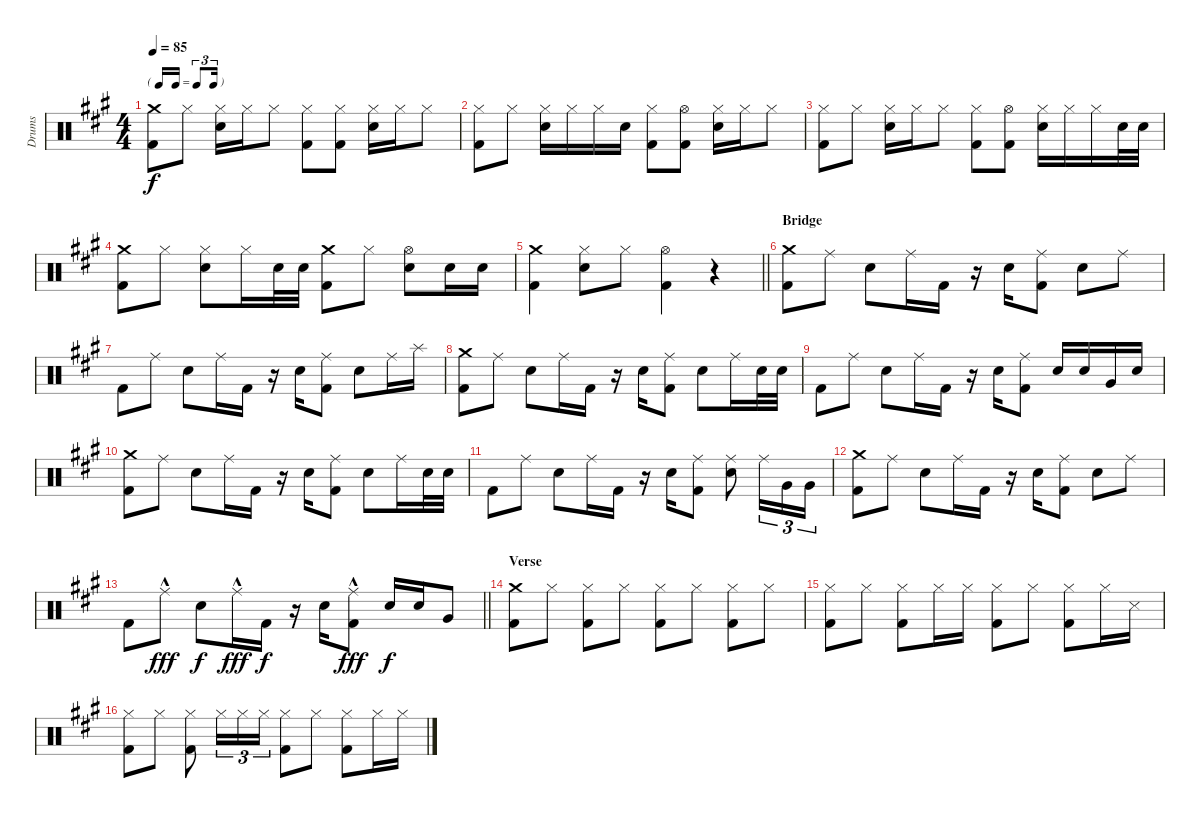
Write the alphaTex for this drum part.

\track ("Drums" "Drums") {instrument percussion}
\staff {score}
\articulation defaults
\ts (4 4)
\tf triplet16th
\tempo 85
\clef neutral
\ks a
("Crash medium (hit)" "Kick (hit) 2").8{dy f} "Hi-Hat (closed)".8 ("Hi-Hat (closed)" "Snare (hit) 2").16 "Hi-Hat (closed)".16 "Hi-Hat (closed)".8 ("Hi-Hat (closed)" "Kick (hit) 2").8 ("Hi-Hat (closed)" "Kick (hit) 2").8 ("Hi-Hat (closed)" "Snare (hit) 2").16 "Hi-Hat (closed)".16 "Hi-Hat (closed)".8 |
("Hi-Hat (closed)" "Kick (hit) 2").8 "Hi-Hat (closed)".8 ("Hi-Hat (closed)" "Snare (hit) 2").16 "Hi-Hat (closed)".16 "Hi-Hat (closed)".16 "Snare (hit) 2".16 ("Hi-Hat (closed)" "Kick (hit) 2").8 ("Hi-Hat (open)" "Kick (hit) 2").8 ("Hi-Hat (closed)" "Snare (hit) 2").16 "Hi-Hat (closed)".16 "Hi-Hat (closed)".8 |
("Hi-Hat (closed)" "Kick (hit) 2").8 "Hi-Hat (closed)".8 ("Hi-Hat (closed)" "Snare (hit) 2").16 "Hi-Hat (closed)".16 "Hi-Hat (closed)".8 ("Hi-Hat (closed)" "Kick (hit) 2").8 ("Hi-Hat (open)" "Kick (hit) 2").8 ("Hi-Hat (closed)" "Snare (hit) 2").16 "Hi-Hat (closed)".16 "Hi-Hat (closed)".16 "Snare (hit) 2".32 "Snare (hit) 2".32 |
("Crash medium (hit)" "Kick (hit) 2").8 "Hi-Hat (closed)".8 ("Hi-Hat (closed)" "Snare (hit) 2").8 "Hi-Hat (closed)".16 "Snare (hit) 2".32 "Snare (hit) 2".32 ("Crash medium (hit)" "Kick (hit) 2").8 "Hi-Hat (closed)".8 ("Hi-Hat (open)" "Snare (hit) 2").8 "Snare (hit) 2".16 "Snare (hit) 2".16 |
\barLineRight lightlight
("Crash medium (hit)" "Kick (hit) 2").4 ("Hi-Hat (closed)" "Snare (hit) 2").8 "Hi-Hat (closed)".8 ("Hi-Hat (open)" "Kick (hit) 2").4 r.4 |
\section ("" "Bridge")
("Crash medium (hit)" "Kick (hit) 2").8 "Ride (middle)".8 "Snare (hit) 2".8 "Ride (middle)".16 "Kick (hit) 2".16 r.16 "Snare (hit) 2".16 ("Ride (middle)" "Kick (hit) 2").8 "Snare (hit) 2".8 "Ride (middle)".8 |
"Kick (hit) 2".8 "Ride (middle)".8 "Snare (hit) 2".8 "Ride (middle)".16 "Kick (hit) 2".16 r.16 "Snare (hit) 2".16 ("Ride (middle)" "Kick (hit) 2").8 "Snare (hit) 2".8 "Ride (middle)".16 "Splash (hit)".16 |
("Crash medium (hit)" "Kick (hit) 2").8 "Ride (middle)".8 "Snare (hit) 2".8 "Ride (middle)".16 "Kick (hit) 2".16 r.16 "Snare (hit) 2".16 ("Ride (middle)" "Kick (hit) 2").8 "Snare (hit) 2".8 "Ride (middle)".16 "Snare (hit) 2".32 "Snare (hit) 2".32 |
"Kick (hit) 2".8 "Ride (middle)".8 "Snare (hit) 2".8 "Ride (middle)".16 "Kick (hit) 2".16 r.16 "Snare (hit) 2".16 ("Ride (middle)" "Kick (hit) 2").8 "Snare (hit) 2".16 "Snare (hit) 2".16 "Very Low Tom (hit)".16 "Snare (hit) 2".16 |
("Crash medium (hit)" "Kick (hit) 2").8 "Ride (middle)".8 "Snare (hit) 2".8 "Ride (middle)".16 "Kick (hit) 2".16 r.16 "Snare (hit) 2".16 ("Ride (middle)" "Kick (hit) 2").8 "Snare (hit) 2".8 "Ride (middle)".16 "Snare (hit) 2".32 "Snare (hit) 2".32 |
"Kick (hit) 2".8 "Ride (middle)".8 "Snare (hit) 2".8 "Ride (middle)".16 "Kick (hit) 2".16 r.16 "Snare (hit) 2".16 ("Ride (middle)" "Kick (hit) 2").8 ("Ride (middle)" "Snare (hit) 2").8 "Ride (middle)".16{tu (3 2)} "Very Low Tom (hit)".16{tu (3 2)} "Very Low Tom (hit)".16{tu (3 2)} |
("Crash medium (hit)" "Kick (hit) 2").8 "Ride (middle)".8 "Snare (hit) 2".8 "Ride (middle)".16 "Kick (hit) 2".16 r.16 "Snare (hit) 2".16 ("Ride (middle)" "Kick (hit) 2").8 "Snare (hit) 2".8 "Ride (middle)".8 |
\barLineRight lightlight "Kick (hit) 2".8 "Ride (middle)"{hac}.8{dy fff} "Snare (hit) 2".8{dy f} "Ride (middle)"{hac}.16{dy fff} "Kick (hit) 2".16{dy f}
r.16 "Snare (hit) 2".16 ("Ride (middle)"{hac} "Kick (hit) 2").8{dy fff} "Snare (hit) 2".16{dy f} "Snare (hit) 2".16 "Very Low Tom (hit)".8 |
\section ("" "Verse")
("Crash medium (hit)" "Kick (hit) 2").8 "Hi-Hat (closed)".8 ("Hi-Hat (closed)" "Kick (hit) 2").8 "Hi-Hat (closed)".8 ("Hi-Hat (closed)" "Kick (hit) 2").8 "Hi-Hat (closed)".8 ("Hi-Hat (closed)" "Kick (hit) 2").8 "Hi-Hat (closed)".8 |
("Hi-Hat (closed)" "Kick (hit) 2").8 "Hi-Hat (closed)".8 ("Hi-Hat (closed)" "Kick (hit) 2").8 "Hi-Hat (closed)".16 "Hi-Hat (closed)".16 ("Hi-Hat (closed)" "Kick (hit) 2").8 "Hi-Hat (closed)".8 ("Hi-Hat (closed)" "Kick (hit) 2").8 "Hi-Hat (closed)".16 "Snare (side stick) 3".16 |
("Hi-Hat (closed)" "Kick (hit) 2").8 "Hi-Hat (closed)".8 ("Hi-Hat (closed)" "Kick (hit) 2").8 "Hi-Hat (closed)".16{tu (3 2)} "Hi-Hat (closed)".16{tu (3 2)} "Hi-Hat (closed)".16{tu (3 2)} ("Hi-Hat (closed)" "Kick (hit) 2").8 "Hi-Hat (closed)".8 ("Hi-Hat (closed)" "Kick (hit) 2").8 "Hi-Hat (closed)".16 "Hi-Hat (closed)".16
